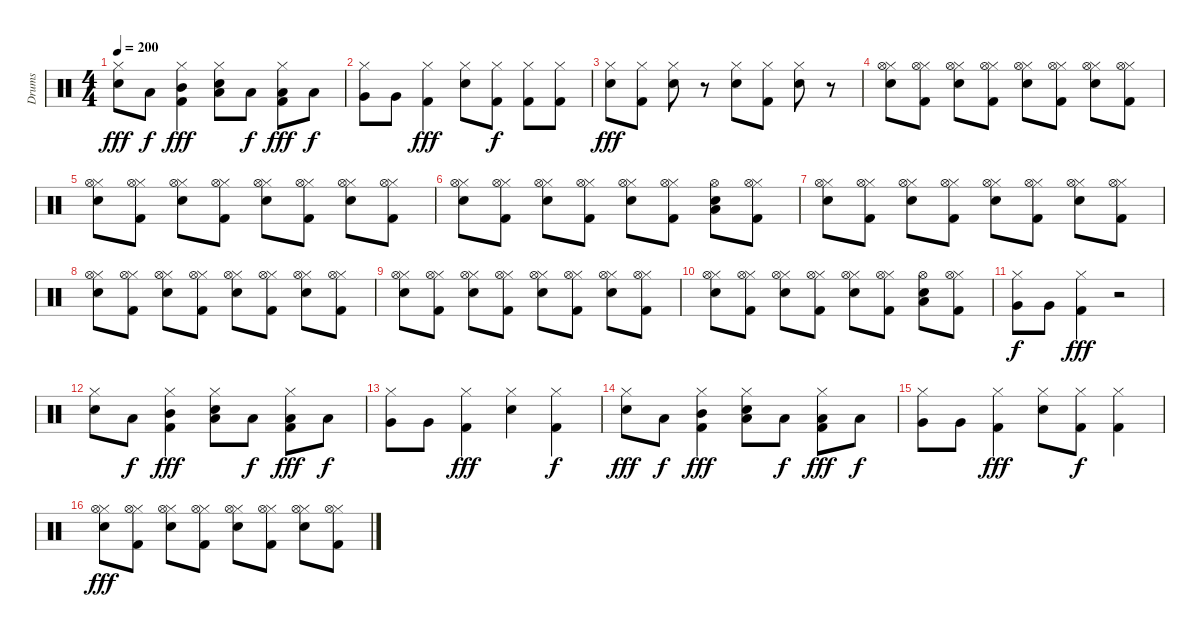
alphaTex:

\track ("Drums" "Drums") {instrument percussion}
\staff {score}
\articulation defaults
\ts (4 4)
\tempo 200
\clef neutral
\ks c
("Hi-Hat (closed)" "Electric Snare (hit)").8{dy fff} "Low Floor Tom (hit)".8{dy f} ("Hi-Hat (closed)" "Kick (hit) 2" "Mid Tom (hit)").4{dy fff} ("Hi-Hat (closed)" "Electric Snare (hit)" "Low Tom (hit)").8 "Low Tom (hit)".8{dy f} ("Hi-Hat (closed)" "Kick (hit) 2" "Low Floor Tom (hit)").8{dy fff} "Low Floor Tom (hit)".8{dy f} |
("Hi-Hat (closed)" "Very Low Tom (hit)").8 "Very Low Tom (hit)".8 ("Hi-Hat (closed)" "Kick (hit) 2").4{dy fff} ("Hi-Hat (closed)" "Electric Snare (hit)").8 ("Hi-Hat (closed)" "Kick (hit) 2").8{dy f} ("Hi-Hat (closed)" "Kick (hit) 2").8 ("Hi-Hat (closed)" "Kick (hit) 2").8 |
("Hi-Hat (closed)" "Electric Snare (hit)").8{dy fff} ("Hi-Hat (closed)" "Kick (hit) 2").8 ("Hi-Hat (closed)" "Electric Snare (hit)").8 r.8 ("Hi-Hat (closed)" "Electric Snare (hit)").8 ("Hi-Hat (closed)" "Kick (hit) 2").8 ("Hi-Hat (closed)" "Electric Snare (hit)").8 r.8 |
("Hi-Hat (closed)" "Electric Snare (hit)" "Hi-Hat (open)").8 ("Hi-Hat (closed)" "Kick (hit) 2" "Hi-Hat (open)").8 ("Hi-Hat (closed)" "Electric Snare (hit)" "Hi-Hat (open)").8 ("Hi-Hat (closed)" "Kick (hit) 2" "Hi-Hat (open)").8 ("Hi-Hat (closed)" "Electric Snare (hit)" "Hi-Hat (open)").8 ("Hi-Hat (closed)" "Kick (hit) 2" "Hi-Hat (open)").8 ("Hi-Hat (closed)" "Electric Snare (hit)" "Hi-Hat (open)").8 ("Hi-Hat (closed)" "Kick (hit) 2" "Hi-Hat (open)").8 |
("Hi-Hat (closed)" "Electric Snare (hit)" "Hi-Hat (open)").8 ("Hi-Hat (closed)" "Kick (hit) 2" "Hi-Hat (open)").8 ("Hi-Hat (closed)" "Electric Snare (hit)" "Hi-Hat (open)").8 ("Hi-Hat (closed)" "Kick (hit) 2" "Hi-Hat (open)").8 ("Hi-Hat (closed)" "Electric Snare (hit)" "Hi-Hat (open)").8 ("Hi-Hat (closed)" "Kick (hit) 2" "Hi-Hat (open)").8 ("Hi-Hat (closed)" "Electric Snare (hit)" "Hi-Hat (open)").8 ("Hi-Hat (closed)" "Kick (hit) 2" "Hi-Hat (open)").8 |
("Hi-Hat (closed)" "Electric Snare (hit)" "Hi-Hat (open)").8 ("Hi-Hat (closed)" "Kick (hit) 2" "Hi-Hat (open)").8 ("Hi-Hat (closed)" "Electric Snare (hit)" "Hi-Hat (open)").8 ("Hi-Hat (closed)" "Kick (hit) 2" "Hi-Hat (open)").8 ("Hi-Hat (closed)" "Electric Snare (hit)" "Hi-Hat (open)").8 ("Hi-Hat (closed)" "Kick (hit) 2" "Hi-Hat (open)").8 ("Low Tom (hit)" "Electric Snare (hit)" "Hi-Hat (open)").8 ("Hi-Hat (closed)" "Kick (hit) 2" "Hi-Hat (open)").8 |
("Hi-Hat (closed)" "Electric Snare (hit)" "Hi-Hat (open)").8 ("Hi-Hat (closed)" "Kick (hit) 2" "Hi-Hat (open)").8 ("Hi-Hat (closed)" "Electric Snare (hit)" "Hi-Hat (open)").8 ("Hi-Hat (closed)" "Kick (hit) 2" "Hi-Hat (open)").8 ("Hi-Hat (closed)" "Electric Snare (hit)" "Hi-Hat (open)").8 ("Hi-Hat (closed)" "Kick (hit) 2" "Hi-Hat (open)").8 ("Hi-Hat (closed)" "Electric Snare (hit)" "Hi-Hat (open)").8 ("Hi-Hat (closed)" "Kick (hit) 2" "Hi-Hat (open)").8 |
("Hi-Hat (closed)" "Electric Snare (hit)" "Hi-Hat (open)").8 ("Hi-Hat (closed)" "Kick (hit) 2" "Hi-Hat (open)").8 ("Hi-Hat (closed)" "Electric Snare (hit)" "Hi-Hat (open)").8 ("Hi-Hat (closed)" "Kick (hit) 2" "Hi-Hat (open)").8 ("Hi-Hat (closed)" "Electric Snare (hit)" "Hi-Hat (open)").8 ("Hi-Hat (closed)" "Kick (hit) 2" "Hi-Hat (open)").8 ("Hi-Hat (closed)" "Electric Snare (hit)" "Hi-Hat (open)").8 ("Hi-Hat (closed)" "Kick (hit) 2" "Hi-Hat (open)").8 |
("Hi-Hat (closed)" "Electric Snare (hit)" "Hi-Hat (open)").8 ("Hi-Hat (closed)" "Kick (hit) 2" "Hi-Hat (open)").8 ("Hi-Hat (closed)" "Electric Snare (hit)" "Hi-Hat (open)").8 ("Hi-Hat (closed)" "Kick (hit) 2" "Hi-Hat (open)").8 ("Hi-Hat (closed)" "Electric Snare (hit)" "Hi-Hat (open)").8 ("Hi-Hat (closed)" "Kick (hit) 2" "Hi-Hat (open)").8 ("Hi-Hat (closed)" "Electric Snare (hit)" "Hi-Hat (open)").8 ("Hi-Hat (closed)" "Kick (hit) 2" "Hi-Hat (open)").8 |
("Hi-Hat (closed)" "Electric Snare (hit)" "Hi-Hat (open)").8 ("Hi-Hat (closed)" "Kick (hit) 2" "Hi-Hat (open)").8 ("Hi-Hat (closed)" "Electric Snare (hit)" "Hi-Hat (open)").8 ("Hi-Hat (closed)" "Kick (hit) 2" "Hi-Hat (open)").8 ("Hi-Hat (closed)" "Electric Snare (hit)" "Hi-Hat (open)").8 ("Hi-Hat (closed)" "Kick (hit) 2" "Hi-Hat (open)").8 ("Low Tom (hit)" "Electric Snare (hit)" "Hi-Hat (open)").8 ("Hi-Hat (closed)" "Kick (hit) 2" "Hi-Hat (open)").8 |
("Hi-Hat (closed)" "Very Low Tom (hit)").8{dy f} "Very Low Tom (hit)".8 ("Hi-Hat (closed)" "Kick (hit) 2").4{dy fff} r.2 |
("Hi-Hat (closed)" "Electric Snare (hit)").8 "Low Floor Tom (hit)".8{dy f} ("Hi-Hat (closed)" "Kick (hit) 2" "Mid Tom (hit)").4{dy fff} ("Hi-Hat (closed)" "Electric Snare (hit)" "Low Tom (hit)").8 "Low Tom (hit)".8{dy f} ("Hi-Hat (closed)" "Kick (hit) 2" "Low Floor Tom (hit)").8{dy fff} "Low Floor Tom (hit)".8{dy f} |
("Hi-Hat (closed)" "Very Low Tom (hit)").8 "Very Low Tom (hit)".8 ("Hi-Hat (closed)" "Kick (hit) 2").4{dy fff} ("Hi-Hat (closed)" "Electric Snare (hit)").4 ("Hi-Hat (closed)" "Kick (hit) 2").4{dy f} |
("Hi-Hat (closed)" "Electric Snare (hit)").8{dy fff} "Low Floor Tom (hit)".8{dy f} ("Hi-Hat (closed)" "Kick (hit) 2" "Mid Tom (hit)").4{dy fff} ("Hi-Hat (closed)" "Electric Snare (hit)" "Low Tom (hit)").8 "Low Tom (hit)".8{dy f} ("Hi-Hat (closed)" "Kick (hit) 2" "Low Floor Tom (hit)").8{dy fff} "Low Floor Tom (hit)".8{dy f} |
("Hi-Hat (closed)" "Very Low Tom (hit)").8 "Very Low Tom (hit)".8 ("Hi-Hat (closed)" "Kick (hit) 2").4{dy fff} ("Hi-Hat (closed)" "Electric Snare (hit)").8 ("Hi-Hat (closed)" "Kick (hit) 2").8{dy f} ("Hi-Hat (closed)" "Kick (hit) 2").4 |
("Hi-Hat (closed)" "Electric Snare (hit)" "Hi-Hat (open)").8{dy fff} ("Hi-Hat (closed)" "Kick (hit) 2" "Hi-Hat (open)").8 ("Hi-Hat (closed)" "Electric Snare (hit)" "Hi-Hat (open)").8 ("Hi-Hat (closed)" "Kick (hit) 2" "Hi-Hat (open)").8 ("Hi-Hat (closed)" "Electric Snare (hit)" "Hi-Hat (open)").8 ("Hi-Hat (closed)" "Kick (hit) 2" "Hi-Hat (open)").8 ("Hi-Hat (closed)" "Electric Snare (hit)" "Hi-Hat (open)").8 ("Hi-Hat (closed)" "Kick (hit) 2" "Hi-Hat (open)").8
